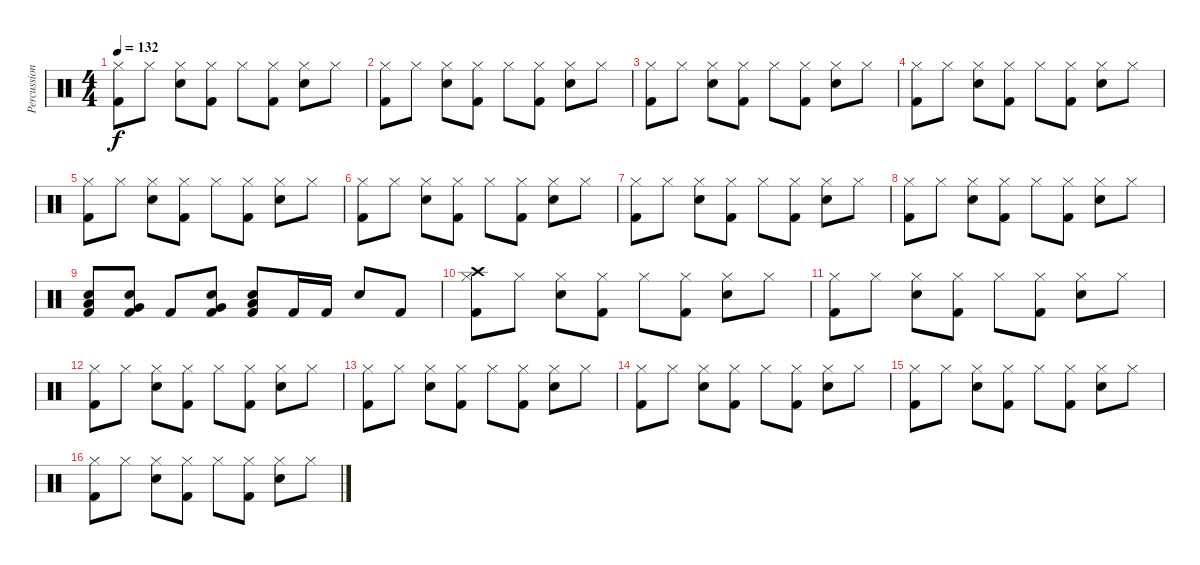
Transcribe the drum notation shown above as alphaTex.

\track ("Percussion" "Percussion") {instrument percussion}
\staff {score}
\articulation defaults
\ts (4 4)
\tempo 132
\clef neutral
\ks c
("Hi-Hat (closed)" "Kick (hit) 2").8{dy f} "Hi-Hat (closed)".8 ("Hi-Hat (closed)" "Snare (hit) 2").8 ("Hi-Hat (closed)" "Kick (hit) 2").8 "Hi-Hat (closed)".8 ("Hi-Hat (closed)" "Kick (hit) 2").8 ("Hi-Hat (closed)" "Snare (hit) 2").8 "Hi-Hat (closed)".8 |
("Hi-Hat (closed)" "Kick (hit) 2").8 "Hi-Hat (closed)".8 ("Hi-Hat (closed)" "Snare (hit) 2").8 ("Hi-Hat (closed)" "Kick (hit) 2").8 "Hi-Hat (closed)".8 ("Hi-Hat (closed)" "Kick (hit) 2").8 ("Hi-Hat (closed)" "Snare (hit) 2").8 "Hi-Hat (closed)".8 |
("Hi-Hat (closed)" "Kick (hit) 2").8 "Hi-Hat (closed)".8 ("Hi-Hat (closed)" "Snare (hit) 2").8 ("Hi-Hat (closed)" "Kick (hit) 2").8 "Hi-Hat (closed)".8 ("Hi-Hat (closed)" "Kick (hit) 2").8 ("Hi-Hat (closed)" "Snare (hit) 2").8 "Hi-Hat (closed)".8 |
("Hi-Hat (closed)" "Kick (hit) 2").8 "Hi-Hat (closed)".8 ("Hi-Hat (closed)" "Snare (hit) 2").8 ("Hi-Hat (closed)" "Kick (hit) 2").8 "Hi-Hat (closed)".8 ("Hi-Hat (closed)" "Kick (hit) 2").8 ("Hi-Hat (closed)" "Snare (hit) 2").8 "Hi-Hat (closed)".8 |
("Hi-Hat (closed)" "Kick (hit) 2").8 "Hi-Hat (closed)".8 ("Hi-Hat (closed)" "Snare (hit) 2").8 ("Hi-Hat (closed)" "Kick (hit) 2").8 "Hi-Hat (closed)".8 ("Hi-Hat (closed)" "Kick (hit) 2").8 ("Hi-Hat (closed)" "Snare (hit) 2").8 "Hi-Hat (closed)".8 |
("Hi-Hat (closed)" "Kick (hit) 2").8 "Hi-Hat (closed)".8 ("Hi-Hat (closed)" "Snare (hit) 2").8 ("Hi-Hat (closed)" "Kick (hit) 2").8 "Hi-Hat (closed)".8 ("Hi-Hat (closed)" "Kick (hit) 2").8 ("Hi-Hat (closed)" "Snare (hit) 2").8 "Hi-Hat (closed)".8 |
("Hi-Hat (closed)" "Kick (hit) 2").8 "Hi-Hat (closed)".8 ("Hi-Hat (closed)" "Snare (hit) 2").8 ("Hi-Hat (closed)" "Kick (hit) 2").8 "Hi-Hat (closed)".8 ("Hi-Hat (closed)" "Kick (hit) 2").8 ("Hi-Hat (closed)" "Snare (hit) 2").8 "Hi-Hat (closed)".8 |
("Hi-Hat (closed)" "Kick (hit) 2").8 "Hi-Hat (closed)".8 ("Hi-Hat (closed)" "Snare (hit) 2").8 ("Hi-Hat (closed)" "Kick (hit) 2").8 "Hi-Hat (closed)".8 ("Hi-Hat (closed)" "Kick (hit) 2").8 ("Hi-Hat (closed)" "Snare (hit) 2").8 "Hi-Hat (closed)".8 |
("Snare (hit) 2" "Low Tom (hit)" "Kick (hit) 2").8 ("Snare (hit) 2" "Very Low Tom (hit)" "Kick (hit) 2").8 "Kick (hit) 2".8 ("Snare (hit) 2" "Very Low Tom (hit)" "Kick (hit) 2").8 ("Snare (hit) 2" "Low Floor Tom (hit)" "Kick (hit) 2").8 "Kick (hit) 2".16 "Kick (hit) 2".16 "Snare (hit) 2".8 "Kick (hit) 2".8 |
("Crash high (hit)" "Hi-Hat (closed)" "Kick (hit) 2").8 "Hi-Hat (closed)".8 ("Hi-Hat (closed)" "Snare (hit) 2").8 ("Hi-Hat (closed)" "Kick (hit) 2").8 "Hi-Hat (closed)".8 ("Hi-Hat (closed)" "Kick (hit) 2").8 ("Hi-Hat (closed)" "Snare (hit) 2").8 "Hi-Hat (closed)".8 |
("Hi-Hat (closed)" "Kick (hit) 2").8 "Hi-Hat (closed)".8 ("Hi-Hat (closed)" "Snare (hit) 2").8 ("Hi-Hat (closed)" "Kick (hit) 2").8 "Hi-Hat (closed)".8 ("Hi-Hat (closed)" "Kick (hit) 2").8 ("Hi-Hat (closed)" "Snare (hit) 2").8 "Hi-Hat (closed)".8 |
("Hi-Hat (closed)" "Kick (hit) 2").8 "Hi-Hat (closed)".8 ("Hi-Hat (closed)" "Snare (hit) 2").8 ("Hi-Hat (closed)" "Kick (hit) 2").8 "Hi-Hat (closed)".8 ("Hi-Hat (closed)" "Kick (hit) 2").8 ("Hi-Hat (closed)" "Snare (hit) 2").8 "Hi-Hat (closed)".8 |
("Hi-Hat (closed)" "Kick (hit) 2").8 "Hi-Hat (closed)".8 ("Hi-Hat (closed)" "Snare (hit) 2").8 ("Hi-Hat (closed)" "Kick (hit) 2").8 "Hi-Hat (closed)".8 ("Hi-Hat (closed)" "Kick (hit) 2").8 ("Hi-Hat (closed)" "Snare (hit) 2").8 "Hi-Hat (closed)".8 |
("Hi-Hat (closed)" "Kick (hit) 2").8 "Hi-Hat (closed)".8 ("Hi-Hat (closed)" "Snare (hit) 2").8 ("Hi-Hat (closed)" "Kick (hit) 2").8 "Hi-Hat (closed)".8 ("Hi-Hat (closed)" "Kick (hit) 2").8 ("Hi-Hat (closed)" "Snare (hit) 2").8 "Hi-Hat (closed)".8 |
("Hi-Hat (closed)" "Kick (hit) 2").8 "Hi-Hat (closed)".8 ("Hi-Hat (closed)" "Snare (hit) 2").8 ("Hi-Hat (closed)" "Kick (hit) 2").8 "Hi-Hat (closed)".8 ("Hi-Hat (closed)" "Kick (hit) 2").8 ("Hi-Hat (closed)" "Snare (hit) 2").8 "Hi-Hat (closed)".8 |
("Hi-Hat (closed)" "Kick (hit) 2").8 "Hi-Hat (closed)".8 ("Hi-Hat (closed)" "Snare (hit) 2").8 ("Hi-Hat (closed)" "Kick (hit) 2").8 "Hi-Hat (closed)".8 ("Hi-Hat (closed)" "Kick (hit) 2").8 ("Hi-Hat (closed)" "Snare (hit) 2").8 "Hi-Hat (closed)".8
